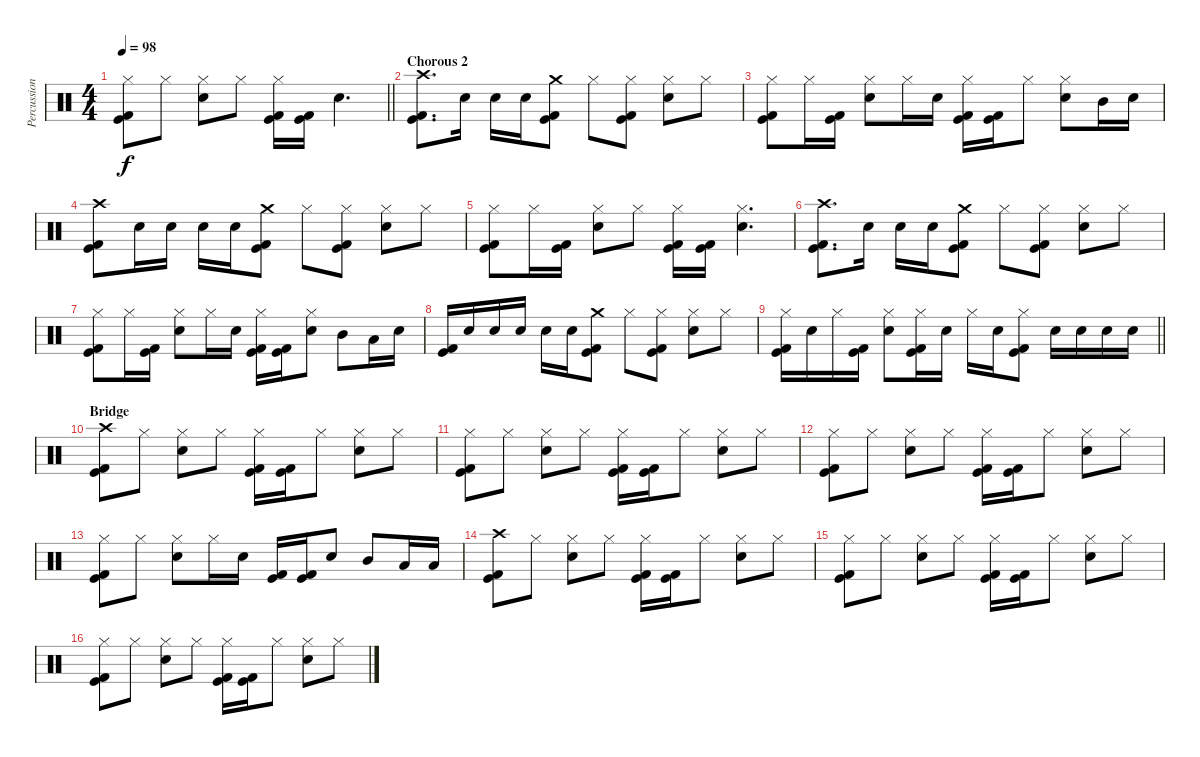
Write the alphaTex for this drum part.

\track ("Percussion" "Percussion") {instrument percussion}
\staff {score}
\articulation defaults
\ts (4 4)
\tempo 98
\clef neutral
\barLineRight lightlight
\ks c
("Hi-Hat (closed)" "Kick (hit)" "Kick (hit) 2").8{dy f} "Hi-Hat (closed)".8 ("Hi-Hat (closed)" "Electric Snare (hit)").8 "Hi-Hat (closed)".8 ("Hi-Hat (closed)" "Kick (hit)" "Kick (hit) 2").16 ("Kick (hit)" "Kick (hit) 2").16 "Electric Snare (hit)".4{d} |
\section ("" "Chorous 2")
("Crash high (hit)" "Kick (hit)" "Kick (hit) 2").8{d} "Electric Snare (hit)".16 "Electric Snare (hit)".16 "Electric Snare (hit)".16 ("Crash medium (hit)" "Kick (hit)" "Kick (hit) 2").8 "Hi-Hat (closed)".8 ("Hi-Hat (closed)" "Kick (hit)" "Kick (hit) 2").8 ("Hi-Hat (closed)" "Electric Snare (hit)").8 "Hi-Hat (closed)".8 |
("Hi-Hat (closed)" "Kick (hit)" "Kick (hit) 2").8 "Hi-Hat (closed)".16 ("Kick (hit)" "Kick (hit) 2").16 ("Hi-Hat (closed)" "Electric Snare (hit)").8 "Hi-Hat (closed)".16 "Electric Snare (hit)".16 ("Hi-Hat (closed)" "Kick (hit)" "Kick (hit) 2").16 ("Kick (hit)" "Kick (hit) 2").16 "Hi-Hat (closed)".8 ("Hi-Hat (closed)" "Electric Snare (hit)").8 "Mid Tom (hit)".16 "Electric Snare (hit)".16 |
("Crash high (hit)" "Kick (hit)" "Kick (hit) 2").8 "Electric Snare (hit)".16 "Electric Snare (hit)".16 "Electric Snare (hit)".16 "Electric Snare (hit)".16 ("Crash medium (hit)" "Kick (hit)" "Kick (hit) 2").8 "Hi-Hat (closed)".8 ("Hi-Hat (closed)" "Kick (hit)" "Kick (hit) 2").8 ("Hi-Hat (closed)" "Electric Snare (hit)").8 "Hi-Hat (closed)".8 |
("Hi-Hat (closed)" "Kick (hit)" "Kick (hit) 2").8 "Hi-Hat (closed)".16 ("Kick (hit)" "Kick (hit) 2").16 ("Hi-Hat (closed)" "Electric Snare (hit)").8 "Hi-Hat (closed)".8 ("Hi-Hat (closed)" "Kick (hit)" "Kick (hit) 2").16 ("Kick (hit)" "Kick (hit) 2").16 ("Hi-Hat (closed)" "Electric Snare (hit)").4{d} |
("Crash high (hit)" "Kick (hit)" "Kick (hit) 2").8{d} "Electric Snare (hit)".16 "Electric Snare (hit)".16 "Electric Snare (hit)".16 ("Crash medium (hit)" "Kick (hit)" "Kick (hit) 2").8 "Hi-Hat (closed)".8 ("Hi-Hat (closed)" "Kick (hit)" "Kick (hit) 2").8 ("Hi-Hat (closed)" "Electric Snare (hit)").8 "Hi-Hat (closed)".8 |
("Hi-Hat (closed)" "Kick (hit)" "Kick (hit) 2").8 "Hi-Hat (closed)".16 ("Kick (hit)" "Kick (hit) 2").16 ("Hi-Hat (closed)" "Electric Snare (hit)").8 "Hi-Hat (closed)".16 "Electric Snare (hit)".16 ("Hi-Hat (closed)" "Kick (hit)" "Kick (hit) 2").16 ("Kick (hit)" "Kick (hit) 2").16 ("Hi-Hat (closed)" "Electric Snare (hit)").8 "Mid Tom (hit)".8 "Low Tom (hit)".16 "Electric Snare (hit)".16 |
("Kick (hit)" "Kick (hit) 2").16 "Electric Snare (hit)".16 "Electric Snare (hit)".16 "Electric Snare (hit)".16 "Electric Snare (hit)".16 "Electric Snare (hit)".16 ("Crash medium (hit)" "Kick (hit)" "Kick (hit) 2").8 "Hi-Hat (closed)".8 ("Hi-Hat (closed)" "Kick (hit)" "Kick (hit) 2").8 ("Hi-Hat (closed)" "Electric Snare (hit)").8 "Hi-Hat (closed)".8 |
\barLineRight lightlight
("Hi-Hat (closed)" "Kick (hit)" "Kick (hit) 2").16 "Electric Snare (hit)".16 "Hi-Hat (closed)".16 ("Kick (hit)" "Kick (hit) 2").16 ("Hi-Hat (closed)" "Electric Snare (hit)").8 ("Hi-Hat (closed)" "Kick (hit)" "Kick (hit) 2").16 "Electric Snare (hit)".16 "Hi-Hat (closed)".16 "Electric Snare (hit)".16 ("Hi-Hat (closed)" "Kick (hit)" "Kick (hit) 2").8 "Electric Snare (hit)".16 "Electric Snare (hit)".16 "Electric Snare (hit)".16 "Electric Snare (hit)".16 |
\section ("" "Bridge")
("Crash high (hit)" "Kick (hit)" "Kick (hit) 2").8 "Hi-Hat (closed)".8 ("Hi-Hat (closed)" "Electric Snare (hit)").8 "Hi-Hat (closed)".8 ("Hi-Hat (closed)" "Kick (hit)" "Kick (hit) 2").16 ("Kick (hit)" "Kick (hit) 2").16 "Hi-Hat (closed)".8 ("Hi-Hat (closed)" "Electric Snare (hit)").8 "Hi-Hat (closed)".8 |
("Hi-Hat (closed)" "Kick (hit)" "Kick (hit) 2").8 "Hi-Hat (closed)".8 ("Hi-Hat (closed)" "Electric Snare (hit)").8 "Hi-Hat (closed)".8 ("Hi-Hat (closed)" "Kick (hit)" "Kick (hit) 2").16 ("Kick (hit)" "Kick (hit) 2").16 "Hi-Hat (closed)".8 ("Hi-Hat (closed)" "Electric Snare (hit)").8 "Hi-Hat (closed)".8 |
("Hi-Hat (closed)" "Kick (hit)" "Kick (hit) 2").8 "Hi-Hat (closed)".8 ("Hi-Hat (closed)" "Electric Snare (hit)").8 "Hi-Hat (closed)".8 ("Hi-Hat (closed)" "Kick (hit)" "Kick (hit) 2").16 ("Kick (hit)" "Kick (hit) 2").16 "Hi-Hat (closed)".8 ("Hi-Hat (closed)" "Electric Snare (hit)").8 "Hi-Hat (closed)".8 |
("Hi-Hat (closed)" "Kick (hit)" "Kick (hit) 2").8 "Hi-Hat (closed)".8 ("Hi-Hat (closed)" "Electric Snare (hit)").8 "Hi-Hat (closed)".16 "Electric Snare (hit)".16 ("Kick (hit)" "Kick (hit) 2").16 ("Kick (hit)" "Kick (hit) 2").16 "Electric Snare (hit)".8 "Mid Tom (hit)".8 "Low Tom (hit)".16 "Low Tom (hit)".16 |
("Crash high (hit)" "Kick (hit)" "Kick (hit) 2").8 "Hi-Hat (closed)".8 ("Hi-Hat (closed)" "Electric Snare (hit)").8 "Hi-Hat (closed)".8 ("Hi-Hat (closed)" "Kick (hit)" "Kick (hit) 2").16 ("Kick (hit)" "Kick (hit) 2").16 "Hi-Hat (closed)".8 ("Hi-Hat (closed)" "Electric Snare (hit)").8 "Hi-Hat (closed)".8 |
("Hi-Hat (closed)" "Kick (hit)" "Kick (hit) 2").8 "Hi-Hat (closed)".8 ("Hi-Hat (closed)" "Electric Snare (hit)").8 "Hi-Hat (closed)".8 ("Hi-Hat (closed)" "Kick (hit)" "Kick (hit) 2").16 ("Kick (hit)" "Kick (hit) 2").16 "Hi-Hat (closed)".8 ("Hi-Hat (closed)" "Electric Snare (hit)").8 "Hi-Hat (closed)".8 |
("Hi-Hat (closed)" "Kick (hit)" "Kick (hit) 2").8 "Hi-Hat (closed)".8 ("Hi-Hat (closed)" "Electric Snare (hit)").8 "Hi-Hat (closed)".8 ("Hi-Hat (closed)" "Kick (hit)" "Kick (hit) 2").16 ("Kick (hit)" "Kick (hit) 2").16 "Hi-Hat (closed)".8 ("Hi-Hat (closed)" "Electric Snare (hit)").8 "Hi-Hat (closed)".8
